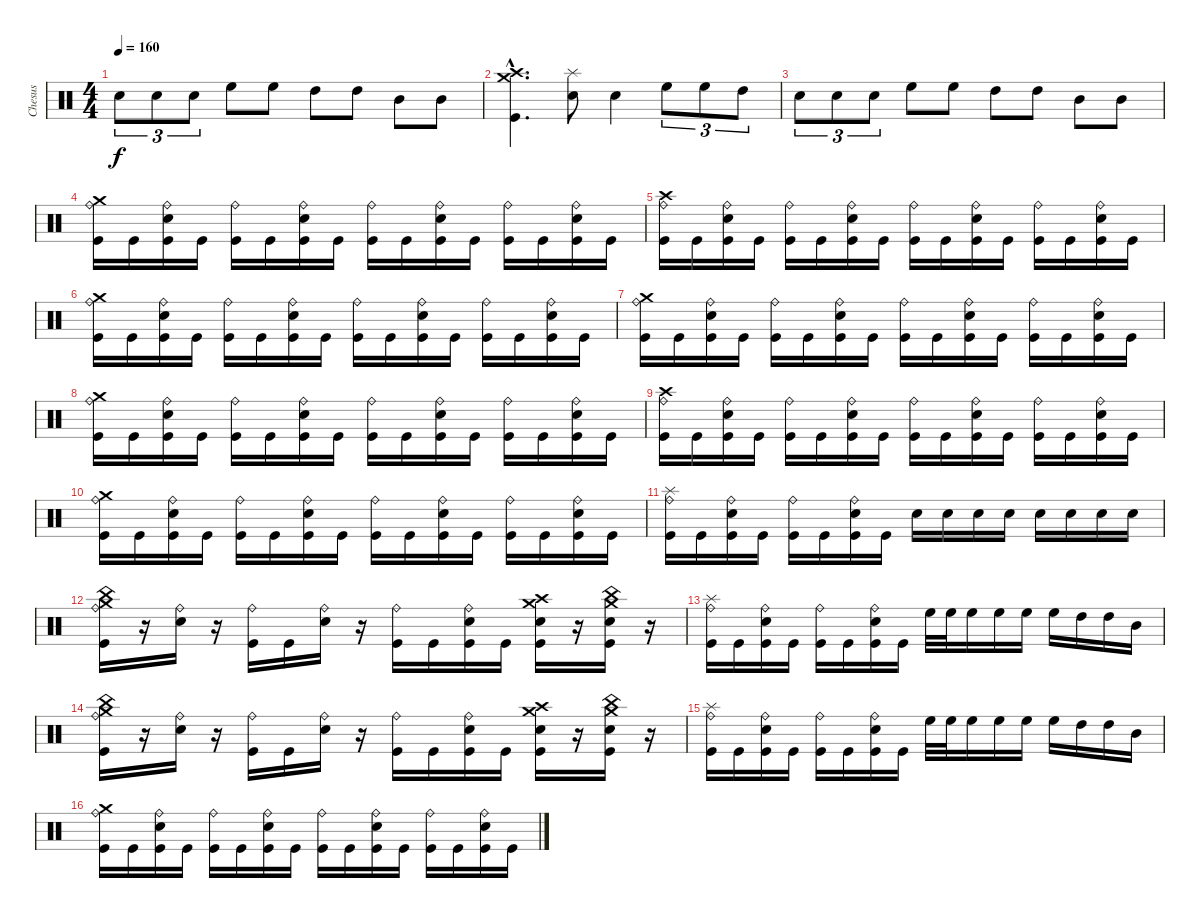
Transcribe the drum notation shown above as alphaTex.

\track ("Chesus" "Chesus") {instrument percussion}
\staff {score}
\articulation defaults
\ts (4 4)
\tempo 160
\clef neutral
\ks c "Snare (hit) 2".8{tu (3 2) dy f} "Snare (hit) 2".8{tu (3 2)} "Snare (hit) 2".8{tu (3 2)} "High Floor Tom (hit)".8 "High Floor Tom (hit)".8 "High Tom (hit)".8 "High Tom (hit)".8 "Mid Tom (hit)".8 "Mid Tom (hit)".8
|
("Crash medium (hit)"{hac} "Crash high (hit)"{hac} "Kick (hit)"{hac}).4{d} ("Splash (hit)" "Snare (hit) 2").8 "Snare (hit) 2".4 "High Floor Tom (hit)".8{tu (3 2)} "High Floor Tom (hit)".8{tu (3 2)} "High Tom (hit)".8{tu (3 2)} |
"Snare (hit) 2".8{tu (3 2)} "Snare (hit) 2".8{tu (3 2)} "Snare (hit) 2".8{tu (3 2)} "High Floor Tom (hit)".8 "High Floor Tom (hit)".8 "High Tom (hit)".8 "High Tom (hit)".8 "Mid Tom (hit)".8 "Mid Tom (hit)".8 |
("Crash medium (hit)" "Ride (bell)" "Kick (hit)").16 "Kick (hit)".16 ("Ride (bell)" "Snare (hit) 2" "Kick (hit)").16 "Kick (hit)".16 ("Ride (bell)" "Kick (hit)").16 "Kick (hit)".16 ("Ride (bell)" "Snare (hit) 2" "Kick (hit)").16 "Kick (hit)".16 ("Ride (bell)" "Kick (hit)").16 "Kick (hit)".16 ("Ride (bell)" "Snare (hit) 2" "Kick (hit)").16 "Kick (hit)".16 ("Ride (bell)" "Kick (hit)").16 "Kick (hit)".16 ("Ride (bell)" "Snare (hit) 2" "Kick (hit)").16 "Kick (hit)".16 |
("Crash high (hit)" "Ride (bell)" "Kick (hit)").16 "Kick (hit)".16 ("Ride (bell)" "Snare (hit) 2" "Kick (hit)").16 "Kick (hit)".16 ("Ride (bell)" "Kick (hit)").16 "Kick (hit)".16 ("Ride (bell)" "Snare (hit) 2" "Kick (hit)").16 "Kick (hit)".16 ("Ride (bell)" "Kick (hit)").16 "Kick (hit)".16 ("Ride (bell)" "Snare (hit) 2" "Kick (hit)").16 "Kick (hit)".16 ("Ride (bell)" "Kick (hit)").16 "Kick (hit)".16 ("Ride (bell)" "Snare (hit) 2" "Kick (hit)").16 "Kick (hit)".16 |
("Crash medium (hit)" "Ride (bell)" "Kick (hit)").16 "Kick (hit)".16 ("Ride (bell)" "Snare (hit) 2" "Kick (hit)").16 "Kick (hit)".16 ("Ride (bell)" "Kick (hit)").16 "Kick (hit)".16 ("Ride (bell)" "Snare (hit) 2" "Kick (hit)").16 "Kick (hit)".16 ("Ride (bell)" "Kick (hit)").16 "Kick (hit)".16 ("Ride (bell)" "Snare (hit) 2" "Kick (hit)").16 "Kick (hit)".16 ("Ride (bell)" "Kick (hit)").16 "Kick (hit)".16 ("Ride (bell)" "Snare (hit) 2" "Kick (hit)").16 "Kick (hit)".16 |
("Crash medium (hit)" "Ride (bell)" "Kick (hit)").16 "Kick (hit)".16 ("Ride (bell)" "Snare (hit) 2" "Kick (hit)").16 "Kick (hit)".16 ("Ride (bell)" "Kick (hit)").16 "Kick (hit)".16 ("Ride (bell)" "Snare (hit) 2" "Kick (hit)").16 "Kick (hit)".16 ("Ride (bell)" "Kick (hit)").16 "Kick (hit)".16 ("Ride (bell)" "Snare (hit) 2" "Kick (hit)").16 "Kick (hit)".16 ("Ride (bell)" "Kick (hit)").16 "Kick (hit)".16 ("Ride (bell)" "Snare (hit) 2" "Kick (hit)").16 "Kick (hit)".16 |
("Crash medium (hit)" "Ride (bell)" "Kick (hit)").16 "Kick (hit)".16 ("Ride (bell)" "Snare (hit) 2" "Kick (hit)").16 "Kick (hit)".16 ("Ride (bell)" "Kick (hit)").16 "Kick (hit)".16 ("Ride (bell)" "Snare (hit) 2" "Kick (hit)").16 "Kick (hit)".16 ("Ride (bell)" "Kick (hit)").16 "Kick (hit)".16 ("Ride (bell)" "Snare (hit) 2" "Kick (hit)").16 "Kick (hit)".16 ("Ride (bell)" "Kick (hit)").16 "Kick (hit)".16 ("Ride (bell)" "Snare (hit) 2" "Kick (hit)").16 "Kick (hit)".16 |
("Crash high (hit)" "Ride (bell)" "Kick (hit)").16 "Kick (hit)".16 ("Ride (bell)" "Snare (hit) 2" "Kick (hit)").16 "Kick (hit)".16 ("Ride (bell)" "Kick (hit)").16 "Kick (hit)".16 ("Ride (bell)" "Snare (hit) 2" "Kick (hit)").16 "Kick (hit)".16 ("Ride (bell)" "Kick (hit)").16 "Kick (hit)".16 ("Ride (bell)" "Snare (hit) 2" "Kick (hit)").16 "Kick (hit)".16 ("Ride (bell)" "Kick (hit)").16 "Kick (hit)".16 ("Ride (bell)" "Snare (hit) 2" "Kick (hit)").16 "Kick (hit)".16 |
("Crash medium (hit)" "Ride (bell)" "Kick (hit)").16 "Kick (hit)".16 ("Ride (bell)" "Snare (hit) 2" "Kick (hit)").16 "Kick (hit)".16 ("Ride (bell)" "Kick (hit)").16 "Kick (hit)".16 ("Ride (bell)" "Snare (hit) 2" "Kick (hit)").16 "Kick (hit)".16 ("Ride (bell)" "Kick (hit)").16 "Kick (hit)".16 ("Ride (bell)" "Snare (hit) 2" "Kick (hit)").16 "Kick (hit)".16 ("Ride (bell)" "Kick (hit)").16 "Kick (hit)".16 ("Ride (bell)" "Snare (hit) 2" "Kick (hit)").16 "Kick (hit)".16 |
("Splash (hit)" "Ride (bell)" "Kick (hit)").16 "Kick (hit)".16 ("Ride (bell)" "Snare (hit) 2" "Kick (hit)").16 "Kick (hit)".16 ("Ride (bell)" "Kick (hit)").16 "Kick (hit)".16 ("Ride (bell)" "Snare (hit) 2" "Kick (hit)").16 "Kick (hit)".16 "Snare (hit) 2".16 "Snare (hit) 2".16 "Snare (hit) 2".16 "Snare (hit) 2".16 "Snare (hit) 2".16 "Snare (hit) 2".16 "Snare (hit) 2".16 "Snare (hit) 2".16 |
("Crash medium (hit)" "China (hit)" "Ride (bell)" "Kick (hit)").16 r.16 ("Ride (bell)" "Snare (hit) 2").16 r.16 ("Ride (bell)" "Kick (hit)").16 "Kick (hit)".16 ("Ride (bell)" "Snare (hit) 2").16 r.16 ("Ride (bell)" "Kick (hit)").16 "Kick (hit)".16 ("Ride (bell)" "Snare (hit) 2" "Kick (hit)").16 "Kick (hit)".16 ("Crash medium (hit)" "Crash high (hit)" "Snare (hit) 2" "Kick (hit)").16 r.16 ("Crash medium (hit)" "China (hit)" "Snare (hit) 2" "Kick (hit)").16 r.16 |
("Splash (hit)" "Ride (bell)" "Kick (hit)").16 "Kick (hit)".16 ("Ride (bell)" "Snare (hit) 2" "Kick (hit)").16 "Kick (hit)".16 ("Ride (bell)" "Kick (hit)").16 "Kick (hit)".16 ("Ride (bell)" "Snare (hit) 2" "Kick (hit)").16 "Kick (hit)".16 "High Floor Tom (hit)".32 "High Floor Tom (hit)".32 "High Floor Tom (hit)".16 "High Floor Tom (hit)".16 "High Floor Tom (hit)".16 "High Floor Tom (hit)".16 "High Tom (hit)".16 "High Tom (hit)".16 "Mid Tom (hit)".16 |
("Crash medium (hit)" "China (hit)" "Ride (bell)" "Kick (hit)").16 r.16 ("Ride (bell)" "Snare (hit) 2").16 r.16 ("Ride (bell)" "Kick (hit)").16 "Kick (hit)".16 ("Ride (bell)" "Snare (hit) 2").16 r.16 ("Ride (bell)" "Kick (hit)").16 "Kick (hit)".16 ("Ride (bell)" "Snare (hit) 2" "Kick (hit)").16 "Kick (hit)".16 ("Crash medium (hit)" "Crash high (hit)" "Snare (hit) 2" "Kick (hit)").16 r.16 ("Crash medium (hit)" "China (hit)" "Snare (hit) 2" "Kick (hit)").16 r.16 |
("Splash (hit)" "Ride (bell)" "Kick (hit)").16 "Kick (hit)".16 ("Ride (bell)" "Snare (hit) 2" "Kick (hit)").16 "Kick (hit)".16 ("Ride (bell)" "Kick (hit)").16 "Kick (hit)".16 ("Ride (bell)" "Snare (hit) 2" "Kick (hit)").16 "Kick (hit)".16 "High Floor Tom (hit)".32 "High Floor Tom (hit)".32 "High Floor Tom (hit)".16 "High Floor Tom (hit)".16 "High Floor Tom (hit)".16 "High Floor Tom (hit)".16 "High Tom (hit)".16 "High Tom (hit)".16 "Mid Tom (hit)".16 |
("Crash medium (hit)" "Ride (bell)" "Kick (hit)").16 "Kick (hit)".16 ("Ride (bell)" "Snare (hit) 2" "Kick (hit)").16 "Kick (hit)".16 ("Ride (bell)" "Kick (hit)").16 "Kick (hit)".16 ("Ride (bell)" "Snare (hit) 2" "Kick (hit)").16 "Kick (hit)".16 ("Ride (bell)" "Kick (hit)").16 "Kick (hit)".16 ("Ride (bell)" "Snare (hit) 2" "Kick (hit)").16 "Kick (hit)".16 ("Ride (bell)" "Kick (hit)").16 "Kick (hit)".16 ("Ride (bell)" "Snare (hit) 2" "Kick (hit)").16 "Kick (hit)".16
